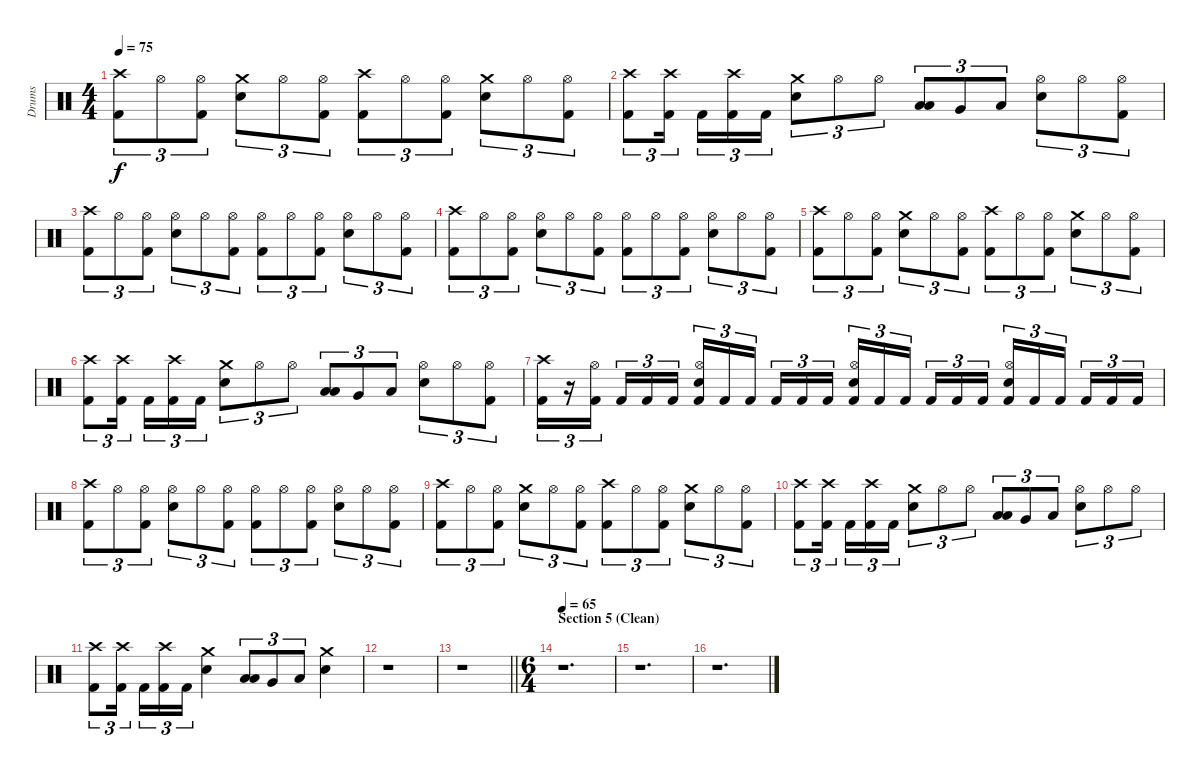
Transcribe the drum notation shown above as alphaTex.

\track ("Drums" "Drums") {instrument percussion}
\staff {score}
\articulation defaults
\ts (4 4)
\tempo 75
\clef neutral
\ks c
("Crash high (hit)" "Kick (hit) 2").8{tu (3 2) dy f} "Hi-Hat (open)".8{tu (3 2)} ("Hi-Hat (open)" "Kick (hit) 2").8{tu (3 2)} ("Crash medium (hit)" "Electric Snare (hit)").8{tu (3 2)} "Hi-Hat (open)".8{tu (3 2)} ("Hi-Hat (open)" "Kick (hit) 2").8{tu (3 2)} ("Crash high (hit)" "Kick (hit) 2").8{tu (3 2)} "Hi-Hat (open)".8{tu (3 2)} ("Hi-Hat (open)" "Kick (hit) 2").8{tu (3 2)} ("Crash medium (hit)" "Electric Snare (hit)").8{tu (3 2)} "Hi-Hat (open)".8{tu (3 2)} ("Hi-Hat (open)" "Kick (hit) 2").8{tu (3 2)} |
("Crash high (hit)" "Kick (hit) 2").8{tu (3 2)} ("Crash high (hit)" "Kick (hit) 2").16{tu (3 2)} "Kick (hit) 2".16{tu (3 2)} ("Crash high (hit)" "Kick (hit) 2").16{tu (3 2)} "Kick (hit) 2".16{tu (3 2)} ("Crash medium (hit)" "Electric Snare (hit)").8{tu (3 2)} "Hi-Hat (open)".8{tu (3 2)} "Hi-Hat (open)".8{tu (3 2)} ("Low Tom (hit)" "Low Tom (hit)").8{tu (3 2) bu 60} "Very Low Tom (hit)".8{tu (3 2)} "Low Floor Tom (hit)".8{tu (3 2)} ("Hi-Hat (open)" "Electric Snare (hit)").8{tu (3 2)} "Hi-Hat (open)".8{tu (3 2)} ("Hi-Hat (open)" "Kick (hit) 2").8{tu (3 2)} |
("Crash high (hit)" "Kick (hit) 2").8{tu (3 2)} "Hi-Hat (open)".8{tu (3 2)} ("Hi-Hat (open)" "Kick (hit) 2").8{tu (3 2)} ("Hi-Hat (open)" "Electric Snare (hit)").8{tu (3 2)} "Hi-Hat (open)".8{tu (3 2)} ("Hi-Hat (open)" "Kick (hit) 2").8{tu (3 2)} ("Hi-Hat (open)" "Kick (hit) 2").8{tu (3 2)} "Hi-Hat (open)".8{tu (3 2)} ("Hi-Hat (open)" "Kick (hit) 2").8{tu (3 2)} ("Hi-Hat (open)" "Electric Snare (hit)").8{tu (3 2)} "Hi-Hat (open)".8{tu (3 2)} ("Hi-Hat (open)" "Kick (hit) 2").8{tu (3 2)} |
("Crash high (hit)" "Kick (hit) 2").8{tu (3 2)} "Hi-Hat (open)".8{tu (3 2)} ("Hi-Hat (open)" "Kick (hit) 2").8{tu (3 2)} ("Hi-Hat (open)" "Electric Snare (hit)").8{tu (3 2)} "Hi-Hat (open)".8{tu (3 2)} ("Hi-Hat (open)" "Kick (hit) 2").8{tu (3 2)} ("Hi-Hat (open)" "Kick (hit) 2").8{tu (3 2)} "Hi-Hat (open)".8{tu (3 2)} ("Hi-Hat (open)" "Kick (hit) 2").8{tu (3 2)} ("Hi-Hat (open)" "Electric Snare (hit)").8{tu (3 2)} "Hi-Hat (open)".8{tu (3 2)} ("Hi-Hat (open)" "Kick (hit) 2").8{tu (3 2)} |
("Crash high (hit)" "Kick (hit) 2").8{tu (3 2)} "Hi-Hat (open)".8{tu (3 2)} ("Hi-Hat (open)" "Kick (hit) 2").8{tu (3 2)} ("Crash medium (hit)" "Electric Snare (hit)").8{tu (3 2)} "Hi-Hat (open)".8{tu (3 2)} ("Hi-Hat (open)" "Kick (hit) 2").8{tu (3 2)} ("Crash high (hit)" "Kick (hit) 2").8{tu (3 2)} "Hi-Hat (open)".8{tu (3 2)} ("Hi-Hat (open)" "Kick (hit) 2").8{tu (3 2)} ("Crash medium (hit)" "Electric Snare (hit)").8{tu (3 2)} "Hi-Hat (open)".8{tu (3 2)} ("Hi-Hat (open)" "Kick (hit) 2").8{tu (3 2)} |
("Crash high (hit)" "Kick (hit) 2").8{tu (3 2)} ("Crash high (hit)" "Kick (hit) 2").16{tu (3 2)} "Kick (hit) 2".16{tu (3 2)} ("Crash high (hit)" "Kick (hit) 2").16{tu (3 2)} "Kick (hit) 2".16{tu (3 2)} ("Crash medium (hit)" "Electric Snare (hit)").8{tu (3 2)} "Hi-Hat (open)".8{tu (3 2)} "Hi-Hat (open)".8{tu (3 2)} ("Low Tom (hit)" "Low Tom (hit)").8{tu (3 2) bu 60} "Very Low Tom (hit)".8{tu (3 2)} "Low Floor Tom (hit)".8{tu (3 2)} ("Hi-Hat (open)" "Electric Snare (hit)").8{tu (3 2)} "Hi-Hat (open)".8{tu (3 2)} ("Hi-Hat (open)" "Kick (hit) 2").8{tu (3 2)} |
("Crash high (hit)" "Kick (hit) 2").16{tu (3 2)} r.16{tu (3 2)} ("Hi-Hat (open)" "Kick (hit) 2").16{tu (3 2)} "Kick (hit) 2".16{tu (3 2)} "Kick (hit) 2".16{tu (3 2)} "Kick (hit) 2".16{tu (3 2)} ("Hi-Hat (open)" "Electric Snare (hit)" "Kick (hit) 2").16{tu (3 2)} "Kick (hit) 2".16{tu (3 2)} "Kick (hit) 2".16{tu (3 2)} "Kick (hit) 2".16{tu (3 2)} "Kick (hit) 2".16{tu (3 2)} "Kick (hit) 2".16{tu (3 2)} ("Hi-Hat (open)" "Electric Snare (hit)" "Kick (hit) 2").16{tu (3 2)} "Kick (hit) 2".16{tu (3 2)} "Kick (hit) 2".16{tu (3 2)} "Kick (hit) 2".16{tu (3 2)} "Kick (hit) 2".16{tu (3 2)} "Kick (hit) 2".16{tu (3 2)} ("Hi-Hat (open)" "Electric Snare (hit)" "Kick (hit) 2").16{tu (3 2)} "Kick (hit) 2".16{tu (3 2)} "Kick (hit) 2".16{tu (3 2)} "Kick (hit) 2".16{tu (3 2)} "Kick (hit) 2".16{tu (3 2)} "Kick (hit) 2".16{tu (3 2)} |
("Crash high (hit)" "Kick (hit) 2").8{tu (3 2)} "Hi-Hat (open)".8{tu (3 2)} ("Hi-Hat (open)" "Kick (hit) 2").8{tu (3 2)} ("Hi-Hat (open)" "Electric Snare (hit)").8{tu (3 2)} "Hi-Hat (open)".8{tu (3 2)} ("Hi-Hat (open)" "Kick (hit) 2").8{tu (3 2)} ("Hi-Hat (open)" "Kick (hit) 2").8{tu (3 2)} "Hi-Hat (open)".8{tu (3 2)} ("Hi-Hat (open)" "Kick (hit) 2").8{tu (3 2)} ("Hi-Hat (open)" "Electric Snare (hit)").8{tu (3 2)} "Hi-Hat (open)".8{tu (3 2)} ("Hi-Hat (open)" "Kick (hit) 2").8{tu (3 2)} |
("Crash high (hit)" "Kick (hit) 2").8{tu (3 2)} "Hi-Hat (open)".8{tu (3 2)} ("Hi-Hat (open)" "Kick (hit) 2").8{tu (3 2)} ("Crash medium (hit)" "Electric Snare (hit)").8{tu (3 2)} "Hi-Hat (open)".8{tu (3 2)} ("Hi-Hat (open)" "Kick (hit) 2").8{tu (3 2)} ("Crash high (hit)" "Kick (hit) 2").8{tu (3 2)} "Hi-Hat (open)".8{tu (3 2)} ("Hi-Hat (open)" "Kick (hit) 2").8{tu (3 2)} ("Crash medium (hit)" "Electric Snare (hit)").8{tu (3 2)} "Hi-Hat (open)".8{tu (3 2)} ("Hi-Hat (open)" "Kick (hit) 2").8{tu (3 2)} |
("Crash high (hit)" "Kick (hit) 2").8{tu (3 2)} ("Crash high (hit)" "Kick (hit) 2").16{tu (3 2)} "Kick (hit) 2".16{tu (3 2)} ("Crash high (hit)" "Kick (hit) 2").16{tu (3 2)} "Kick (hit) 2".16{tu (3 2)} ("Crash medium (hit)" "Electric Snare (hit)").8{tu (3 2)} "Hi-Hat (open)".8{tu (3 2)} "Hi-Hat (open)".8{tu (3 2)} ("Low Tom (hit)" "Low Tom (hit)").8{tu (3 2) bu 60} "Very Low Tom (hit)".8{tu (3 2)} "Low Floor Tom (hit)".8{tu (3 2)} ("Hi-Hat (open)" "Electric Snare (hit)").8{tu (3 2)} "Hi-Hat (open)".8{tu (3 2)} "Hi-Hat (open)".8{tu (3 2)} |
("Crash high (hit)" "Kick (hit) 2").8{tu (3 2)} ("Crash high (hit)" "Kick (hit) 2").16{tu (3 2)} "Kick (hit) 2".16{tu (3 2)} ("Crash high (hit)" "Kick (hit) 2").16{tu (3 2)} "Kick (hit) 2".16{tu (3 2)} ("Crash medium (hit)" "Electric Snare (hit)").4 ("Low Tom (hit)" "Low Tom (hit)").8{tu (3 2) bu 60} "Very Low Tom (hit)".8{tu (3 2)} "Low Floor Tom (hit)".8{tu (3 2)} ("Crash medium (hit)" "Electric Snare (hit)").4 |
r.1 |
\barLineRight lightlight
r.1 |
\ts (6 4)
\section ("" "Section 5 (Clean)")
\tempo 65
r.1{d} |
r.1{d} |
r.1{d}
